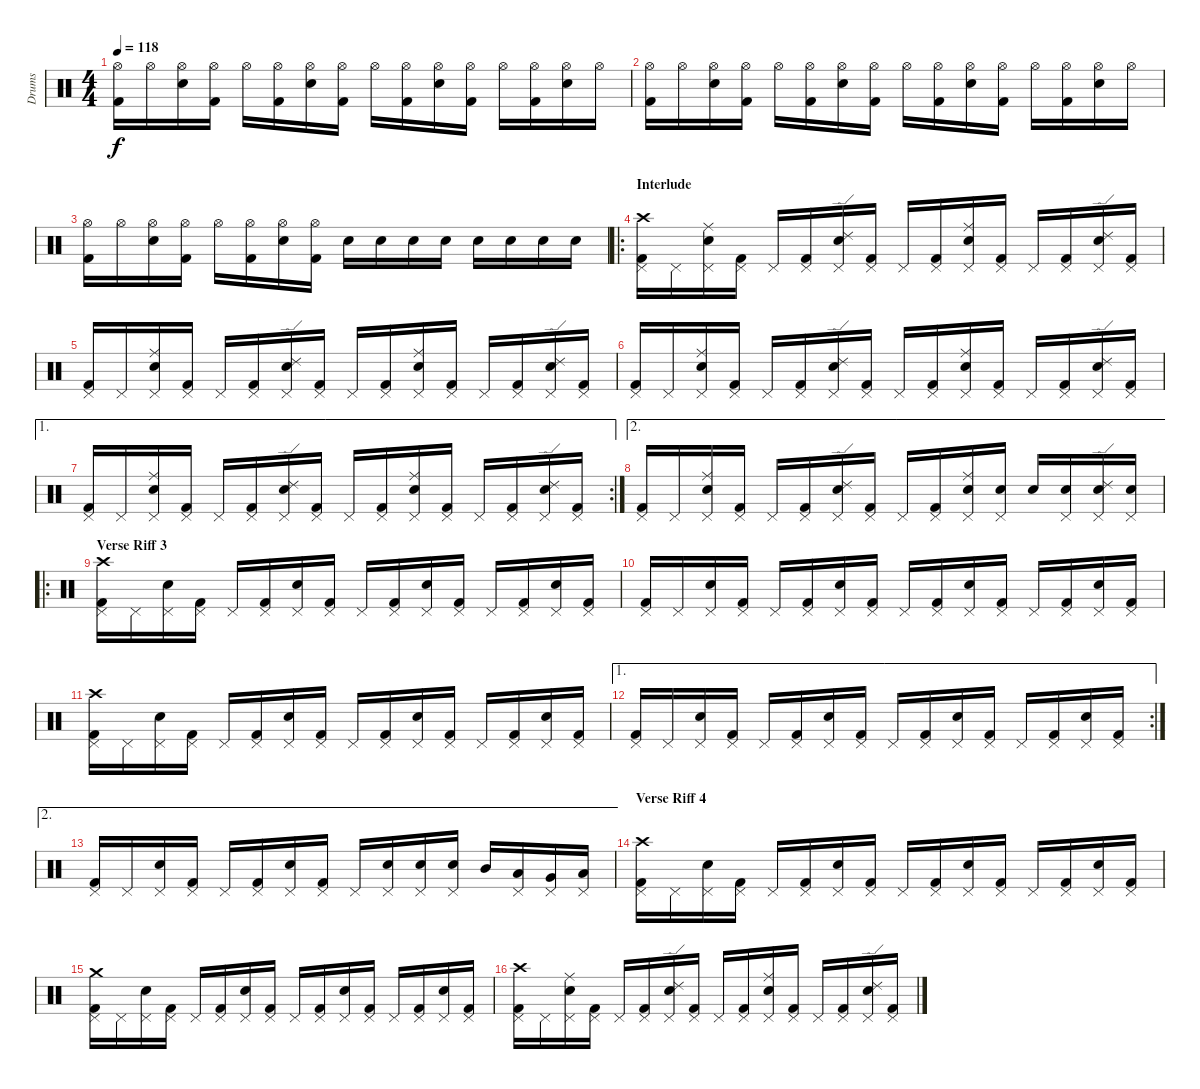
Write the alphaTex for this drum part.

\track ("Drums" "Drums") {instrument percussion}
\staff {score}
\articulation defaults
\ts (4 4)
\tempo 118
\clef neutral
\ks c
("Kick (hit) 2" "Hi-Hat (open)").16{dy f} "Hi-Hat (open)".16 ("Snare (hit) 2" "Hi-Hat (open)").16 ("Kick (hit) 2" "Hi-Hat (open)").16 "Hi-Hat (open)".16 ("Kick (hit) 2" "Hi-Hat (open)").16 ("Snare (hit) 2" "Hi-Hat (open)").16 ("Kick (hit) 2" "Hi-Hat (open)").16 "Hi-Hat (open)".16 ("Kick (hit) 2" "Hi-Hat (open)").16 ("Snare (hit) 2" "Hi-Hat (open)").16 ("Kick (hit) 2" "Hi-Hat (open)").16 "Hi-Hat (open)".16 ("Kick (hit) 2" "Hi-Hat (open)").16 ("Snare (hit) 2" "Hi-Hat (open)").16 "Hi-Hat (open)".16 |
("Kick (hit) 2" "Hi-Hat (open)").16 "Hi-Hat (open)".16 ("Snare (hit) 2" "Hi-Hat (open)").16 ("Kick (hit) 2" "Hi-Hat (open)").16 "Hi-Hat (open)".16 ("Kick (hit) 2" "Hi-Hat (open)").16 ("Snare (hit) 2" "Hi-Hat (open)").16 ("Kick (hit) 2" "Hi-Hat (open)").16 "Hi-Hat (open)".16 ("Kick (hit) 2" "Hi-Hat (open)").16 ("Snare (hit) 2" "Hi-Hat (open)").16 ("Kick (hit) 2" "Hi-Hat (open)").16 "Hi-Hat (open)".16 ("Kick (hit) 2" "Hi-Hat (open)").16 ("Snare (hit) 2" "Hi-Hat (open)").16 "Hi-Hat (open)".16 |
("Kick (hit) 2" "Hi-Hat (open)").16 "Hi-Hat (open)".16 ("Snare (hit) 2" "Hi-Hat (open)").16 ("Kick (hit) 2" "Hi-Hat (open)").16 "Hi-Hat (open)".16 ("Kick (hit) 2" "Hi-Hat (open)").16 ("Snare (hit) 2" "Hi-Hat (open)").16 ("Kick (hit) 2" "Hi-Hat (open)").16 "Snare (hit) 2".16 "Snare (hit) 2".16 "Snare (hit) 2".16 "Snare (hit) 2".16 "Snare (hit) 2".16 "Snare (hit) 2".16 "Snare (hit) 2".16 "Snare (hit) 2".16 |
\ro
\section ("" "Interlude")
("Kick (hit) 2" "Pedal Hi-Hat (hit)" "Crash high (hit)").16 "Pedal Hi-Hat (hit)".16 ("Snare (hit) 2" "Pedal Hi-Hat (hit)" "Ride (middle)").16 ("Kick (hit) 2" "Pedal Hi-Hat (hit)").16 "Pedal Hi-Hat (hit)".16 ("Kick (hit) 2" "Pedal Hi-Hat (hit)").16 ("Snare (hit) 2" "Pedal Hi-Hat (hit)" "Ride (edge) 2").16 ("Kick (hit) 2" "Pedal Hi-Hat (hit)").16 "Pedal Hi-Hat (hit)".16 ("Kick (hit) 2" "Pedal Hi-Hat (hit)").16 ("Snare (hit) 2" "Pedal Hi-Hat (hit)" "Ride (middle)").16 ("Kick (hit) 2" "Pedal Hi-Hat (hit)").16 "Pedal Hi-Hat (hit)".16 ("Kick (hit) 2" "Pedal Hi-Hat (hit)").16 ("Snare (hit) 2" "Pedal Hi-Hat (hit)" "Ride (edge) 2").16 ("Kick (hit) 2" "Pedal Hi-Hat (hit)").16 |
("Kick (hit) 2" "Pedal Hi-Hat (hit)").16 "Pedal Hi-Hat (hit)".16 ("Snare (hit) 2" "Pedal Hi-Hat (hit)" "Ride (middle)").16 ("Kick (hit) 2" "Pedal Hi-Hat (hit)").16 "Pedal Hi-Hat (hit)".16 ("Kick (hit) 2" "Pedal Hi-Hat (hit)").16 ("Snare (hit) 2" "Pedal Hi-Hat (hit)" "Ride (edge) 2").16 ("Kick (hit) 2" "Pedal Hi-Hat (hit)").16 "Pedal Hi-Hat (hit)".16 ("Kick (hit) 2" "Pedal Hi-Hat (hit)").16 ("Snare (hit) 2" "Pedal Hi-Hat (hit)" "Ride (middle)").16 ("Kick (hit) 2" "Pedal Hi-Hat (hit)").16 "Pedal Hi-Hat (hit)".16 ("Kick (hit) 2" "Pedal Hi-Hat (hit)").16 ("Snare (hit) 2" "Pedal Hi-Hat (hit)" "Ride (edge) 2").16 ("Kick (hit) 2" "Pedal Hi-Hat (hit)").16 |
("Kick (hit) 2" "Pedal Hi-Hat (hit)").16 "Pedal Hi-Hat (hit)".16 ("Snare (hit) 2" "Pedal Hi-Hat (hit)" "Ride (middle)").16 ("Kick (hit) 2" "Pedal Hi-Hat (hit)").16 "Pedal Hi-Hat (hit)".16 ("Kick (hit) 2" "Pedal Hi-Hat (hit)").16 ("Snare (hit) 2" "Pedal Hi-Hat (hit)" "Ride (edge) 2").16 ("Kick (hit) 2" "Pedal Hi-Hat (hit)").16 "Pedal Hi-Hat (hit)".16 ("Kick (hit) 2" "Pedal Hi-Hat (hit)").16 ("Snare (hit) 2" "Pedal Hi-Hat (hit)" "Ride (middle)").16 ("Kick (hit) 2" "Pedal Hi-Hat (hit)").16 "Pedal Hi-Hat (hit)".16 ("Kick (hit) 2" "Pedal Hi-Hat (hit)").16 ("Snare (hit) 2" "Pedal Hi-Hat (hit)" "Ride (edge) 2").16 ("Kick (hit) 2" "Pedal Hi-Hat (hit)").16 |
\ae 1
\rc 2
("Kick (hit) 2" "Pedal Hi-Hat (hit)").16 "Pedal Hi-Hat (hit)".16 ("Snare (hit) 2" "Pedal Hi-Hat (hit)" "Ride (middle)").16 ("Kick (hit) 2" "Pedal Hi-Hat (hit)").16 "Pedal Hi-Hat (hit)".16 ("Kick (hit) 2" "Pedal Hi-Hat (hit)").16 ("Snare (hit) 2" "Pedal Hi-Hat (hit)" "Ride (edge) 2").16 ("Kick (hit) 2" "Pedal Hi-Hat (hit)").16 "Pedal Hi-Hat (hit)".16 ("Kick (hit) 2" "Pedal Hi-Hat (hit)").16 ("Snare (hit) 2" "Pedal Hi-Hat (hit)" "Ride (middle)").16 ("Kick (hit) 2" "Pedal Hi-Hat (hit)").16 "Pedal Hi-Hat (hit)".16 ("Kick (hit) 2" "Pedal Hi-Hat (hit)").16 ("Snare (hit) 2" "Pedal Hi-Hat (hit)" "Ride (edge) 2").16 ("Kick (hit) 2" "Pedal Hi-Hat (hit)").16 |
\ae 2
("Kick (hit) 2" "Pedal Hi-Hat (hit)").16 "Pedal Hi-Hat (hit)".16 ("Snare (hit) 2" "Pedal Hi-Hat (hit)" "Ride (middle)").16 ("Kick (hit) 2" "Pedal Hi-Hat (hit)").16 "Pedal Hi-Hat (hit)".16 ("Kick (hit) 2" "Pedal Hi-Hat (hit)").16 ("Snare (hit) 2" "Pedal Hi-Hat (hit)" "Ride (edge) 2").16 ("Kick (hit) 2" "Pedal Hi-Hat (hit)").16 "Pedal Hi-Hat (hit)".16 ("Kick (hit) 2" "Pedal Hi-Hat (hit)").16 ("Snare (hit) 2" "Pedal Hi-Hat (hit)" "Ride (middle)").16 ("Snare (hit) 2" "Pedal Hi-Hat (hit)").16 "Snare (hit) 2".16 ("Snare (hit) 2" "Pedal Hi-Hat (hit)").16 ("Snare (hit) 2" "Pedal Hi-Hat (hit)" "Ride (edge) 2").16 ("Snare (hit) 2" "Pedal Hi-Hat (hit)").16 |
\ro
\section ("" "Verse Riff 3")
("Kick (hit) 2" "Pedal Hi-Hat (hit)" "Crash high (hit)").16 "Pedal Hi-Hat (hit)".16 ("Snare (hit) 2" "Pedal Hi-Hat (hit)").16 ("Kick (hit) 2" "Pedal Hi-Hat (hit)").16 "Pedal Hi-Hat (hit)".16 ("Kick (hit) 2" "Pedal Hi-Hat (hit)").16 ("Snare (hit) 2" "Pedal Hi-Hat (hit)").16 ("Kick (hit) 2" "Pedal Hi-Hat (hit)").16 "Pedal Hi-Hat (hit)".16 ("Kick (hit) 2" "Pedal Hi-Hat (hit)").16 ("Snare (hit) 2" "Pedal Hi-Hat (hit)").16 ("Kick (hit) 2" "Pedal Hi-Hat (hit)").16 "Pedal Hi-Hat (hit)".16 ("Kick (hit) 2" "Pedal Hi-Hat (hit)").16 ("Snare (hit) 2" "Pedal Hi-Hat (hit)").16 ("Kick (hit) 2" "Pedal Hi-Hat (hit)").16 |
("Kick (hit) 2" "Pedal Hi-Hat (hit)").16 "Pedal Hi-Hat (hit)".16 ("Snare (hit) 2" "Pedal Hi-Hat (hit)").16 ("Kick (hit) 2" "Pedal Hi-Hat (hit)").16 "Pedal Hi-Hat (hit)".16 ("Kick (hit) 2" "Pedal Hi-Hat (hit)").16 ("Snare (hit) 2" "Pedal Hi-Hat (hit)").16 ("Kick (hit) 2" "Pedal Hi-Hat (hit)").16 "Pedal Hi-Hat (hit)".16 ("Kick (hit) 2" "Pedal Hi-Hat (hit)").16 ("Snare (hit) 2" "Pedal Hi-Hat (hit)").16 ("Kick (hit) 2" "Pedal Hi-Hat (hit)").16 "Pedal Hi-Hat (hit)".16 ("Kick (hit) 2" "Pedal Hi-Hat (hit)").16 ("Snare (hit) 2" "Pedal Hi-Hat (hit)").16 ("Kick (hit) 2" "Pedal Hi-Hat (hit)").16 |
("Kick (hit) 2" "Pedal Hi-Hat (hit)" "Crash high (hit)").16 "Pedal Hi-Hat (hit)".16 ("Snare (hit) 2" "Pedal Hi-Hat (hit)").16 ("Kick (hit) 2" "Pedal Hi-Hat (hit)").16 "Pedal Hi-Hat (hit)".16 ("Kick (hit) 2" "Pedal Hi-Hat (hit)").16 ("Snare (hit) 2" "Pedal Hi-Hat (hit)").16 ("Kick (hit) 2" "Pedal Hi-Hat (hit)").16 "Pedal Hi-Hat (hit)".16 ("Kick (hit) 2" "Pedal Hi-Hat (hit)").16 ("Snare (hit) 2" "Pedal Hi-Hat (hit)").16 ("Kick (hit) 2" "Pedal Hi-Hat (hit)").16 "Pedal Hi-Hat (hit)".16 ("Kick (hit) 2" "Pedal Hi-Hat (hit)").16 ("Snare (hit) 2" "Pedal Hi-Hat (hit)").16 ("Kick (hit) 2" "Pedal Hi-Hat (hit)").16 |
\ae 1
\rc 2
("Kick (hit) 2" "Pedal Hi-Hat (hit)").16 "Pedal Hi-Hat (hit)".16 ("Snare (hit) 2" "Pedal Hi-Hat (hit)").16 ("Kick (hit) 2" "Pedal Hi-Hat (hit)").16 "Pedal Hi-Hat (hit)".16 ("Kick (hit) 2" "Pedal Hi-Hat (hit)").16 ("Snare (hit) 2" "Pedal Hi-Hat (hit)").16 ("Kick (hit) 2" "Pedal Hi-Hat (hit)").16 "Pedal Hi-Hat (hit)".16 ("Kick (hit) 2" "Pedal Hi-Hat (hit)").16 ("Snare (hit) 2" "Pedal Hi-Hat (hit)").16 ("Kick (hit) 2" "Pedal Hi-Hat (hit)").16 "Pedal Hi-Hat (hit)".16 ("Kick (hit) 2" "Pedal Hi-Hat (hit)").16 ("Snare (hit) 2" "Pedal Hi-Hat (hit)").16 ("Kick (hit) 2" "Pedal Hi-Hat (hit)").16 |
\ae 2
("Kick (hit) 2" "Pedal Hi-Hat (hit)").16 "Pedal Hi-Hat (hit)".16 ("Snare (hit) 2" "Pedal Hi-Hat (hit)").16 ("Kick (hit) 2" "Pedal Hi-Hat (hit)").16 "Pedal Hi-Hat (hit)".16 ("Kick (hit) 2" "Pedal Hi-Hat (hit)").16 ("Snare (hit) 2" "Pedal Hi-Hat (hit)").16 ("Kick (hit) 2" "Pedal Hi-Hat (hit)").16 "Pedal Hi-Hat (hit)".16 ("Snare (hit) 2" "Pedal Hi-Hat (hit)").16 ("Snare (hit) 2" "Pedal Hi-Hat (hit)").16 ("Snare (hit) 2" "Pedal Hi-Hat (hit)").16 "Mid Tom (hit)".16 ("Low Tom (hit)" "Pedal Hi-Hat (hit)").16 ("Very Low Tom (hit)" "Pedal Hi-Hat (hit)").16 ("Low Floor Tom (hit)" "Pedal Hi-Hat (hit)").16 |
\section ("" "Verse Riff 4")
("Kick (hit) 2" "Pedal Hi-Hat (hit)" "Crash high (hit)").16 "Pedal Hi-Hat (hit)".16 ("Snare (hit) 2" "Pedal Hi-Hat (hit)").16 ("Kick (hit) 2" "Pedal Hi-Hat (hit)").16 "Pedal Hi-Hat (hit)".16 ("Kick (hit) 2" "Pedal Hi-Hat (hit)").16 ("Snare (hit) 2" "Pedal Hi-Hat (hit)").16 ("Kick (hit) 2" "Pedal Hi-Hat (hit)").16 "Pedal Hi-Hat (hit)".16 ("Kick (hit) 2" "Pedal Hi-Hat (hit)").16 ("Snare (hit) 2" "Pedal Hi-Hat (hit)").16 ("Kick (hit) 2" "Pedal Hi-Hat (hit)").16 "Pedal Hi-Hat (hit)".16 ("Kick (hit) 2" "Pedal Hi-Hat (hit)").16 ("Snare (hit) 2" "Pedal Hi-Hat (hit)").16 ("Kick (hit) 2" "Pedal Hi-Hat (hit)").16 |
("Kick (hit) 2" "Pedal Hi-Hat (hit)" "Crash medium (hit)").16 "Pedal Hi-Hat (hit)".16 ("Snare (hit) 2" "Pedal Hi-Hat (hit)").16 ("Kick (hit) 2" "Pedal Hi-Hat (hit)").16 "Pedal Hi-Hat (hit)".16 ("Kick (hit) 2" "Pedal Hi-Hat (hit)").16 ("Snare (hit) 2" "Pedal Hi-Hat (hit)").16 ("Kick (hit) 2" "Pedal Hi-Hat (hit)").16 "Pedal Hi-Hat (hit)".16 ("Kick (hit) 2" "Pedal Hi-Hat (hit)").16 ("Snare (hit) 2" "Pedal Hi-Hat (hit)").16 ("Kick (hit) 2" "Pedal Hi-Hat (hit)").16 "Pedal Hi-Hat (hit)".16 ("Kick (hit) 2" "Pedal Hi-Hat (hit)").16 ("Snare (hit) 2" "Pedal Hi-Hat (hit)").16 ("Kick (hit) 2" "Pedal Hi-Hat (hit)").16 |
("Kick (hit) 2" "Pedal Hi-Hat (hit)" "Crash high (hit)").16 "Pedal Hi-Hat (hit)".16 ("Snare (hit) 2" "Pedal Hi-Hat (hit)" "Ride (middle)").16 ("Kick (hit) 2" "Pedal Hi-Hat (hit)").16 "Pedal Hi-Hat (hit)".16 ("Kick (hit) 2" "Pedal Hi-Hat (hit)").16 ("Snare (hit) 2" "Pedal Hi-Hat (hit)" "Ride (edge) 2").16 ("Kick (hit) 2" "Pedal Hi-Hat (hit)").16 "Pedal Hi-Hat (hit)".16 ("Kick (hit) 2" "Pedal Hi-Hat (hit)").16 ("Snare (hit) 2" "Pedal Hi-Hat (hit)" "Ride (middle)").16 ("Kick (hit) 2" "Pedal Hi-Hat (hit)").16 "Pedal Hi-Hat (hit)".16 ("Kick (hit) 2" "Pedal Hi-Hat (hit)").16 ("Snare (hit) 2" "Pedal Hi-Hat (hit)" "Ride (edge) 2").16 ("Kick (hit) 2" "Pedal Hi-Hat (hit)").16
